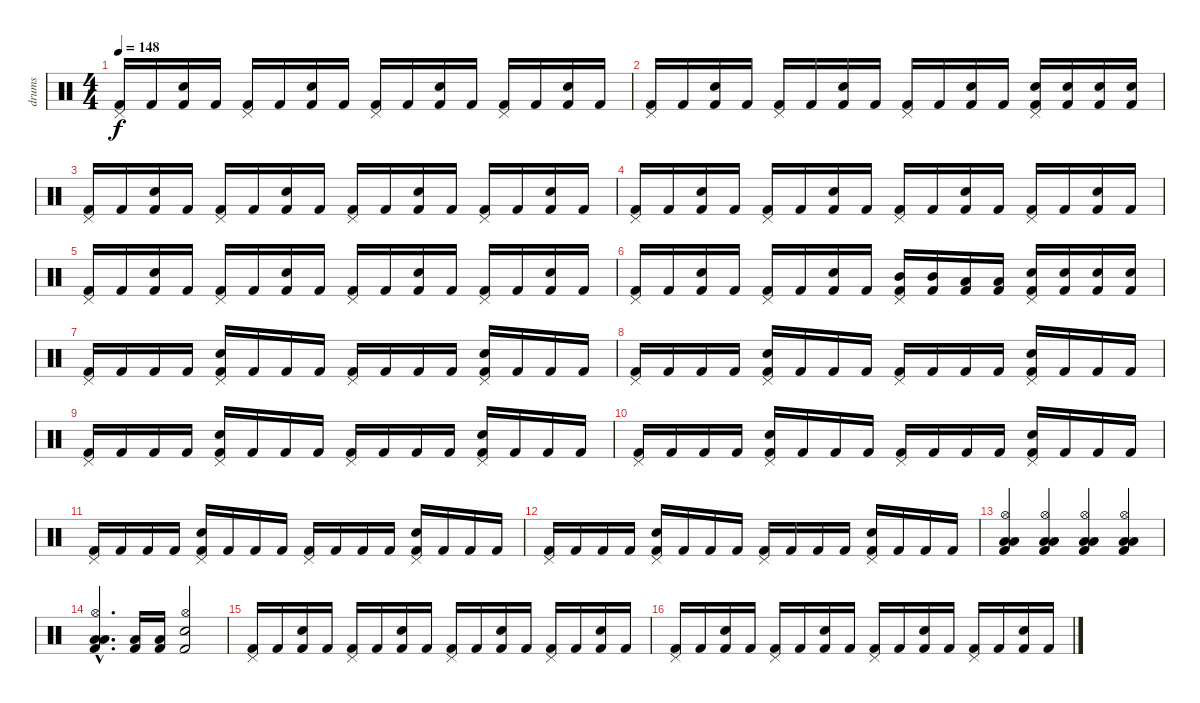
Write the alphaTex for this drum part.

\track ("drums" "drums") {instrument percussion}
\staff {score}
\articulation defaults
\ts (4 4)
\tempo 148
\clef neutral
\ks c
("Pedal Hi-Hat (hit)" "Kick (hit) 2").16{dy f} "Kick (hit) 2".16 ("Electric Snare (hit)" "Kick (hit) 2").16 "Kick (hit) 2".16 ("Pedal Hi-Hat (hit)" "Kick (hit) 2").16 "Kick (hit) 2".16 ("Electric Snare (hit)" "Kick (hit) 2").16 "Kick (hit) 2".16 ("Pedal Hi-Hat (hit)" "Kick (hit) 2").16 "Kick (hit) 2".16 ("Electric Snare (hit)" "Kick (hit) 2").16 "Kick (hit) 2".16 ("Pedal Hi-Hat (hit)" "Kick (hit) 2").16 "Kick (hit) 2".16 ("Electric Snare (hit)" "Kick (hit) 2").16 "Kick (hit) 2".16 |
("Pedal Hi-Hat (hit)" "Kick (hit) 2").16 "Kick (hit) 2".16 ("Electric Snare (hit)" "Kick (hit) 2").16 "Kick (hit) 2".16 ("Pedal Hi-Hat (hit)" "Kick (hit) 2").16 "Kick (hit) 2".16 ("Electric Snare (hit)" "Kick (hit) 2").16 "Kick (hit) 2".16 ("Pedal Hi-Hat (hit)" "Kick (hit) 2").16 "Kick (hit) 2".16 ("Electric Snare (hit)" "Kick (hit) 2").16 "Kick (hit) 2".16 ("Pedal Hi-Hat (hit)" "Electric Snare (hit)" "Kick (hit) 2").16 ("Electric Snare (hit)" "Kick (hit) 2").16 ("Electric Snare (hit)" "Kick (hit) 2").16 ("Electric Snare (hit)" "Kick (hit) 2").16 |
("Pedal Hi-Hat (hit)" "Kick (hit) 2").16 "Kick (hit) 2".16 ("Electric Snare (hit)" "Kick (hit) 2").16 "Kick (hit) 2".16 ("Pedal Hi-Hat (hit)" "Kick (hit) 2").16 "Kick (hit) 2".16 ("Electric Snare (hit)" "Kick (hit) 2").16 "Kick (hit) 2".16 ("Pedal Hi-Hat (hit)" "Kick (hit) 2").16 "Kick (hit) 2".16 ("Electric Snare (hit)" "Kick (hit) 2").16 "Kick (hit) 2".16 ("Pedal Hi-Hat (hit)" "Kick (hit) 2").16 "Kick (hit) 2".16 ("Electric Snare (hit)" "Kick (hit) 2").16 "Kick (hit) 2".16 |
("Pedal Hi-Hat (hit)" "Kick (hit) 2").16 "Kick (hit) 2".16 ("Electric Snare (hit)" "Kick (hit) 2").16 "Kick (hit) 2".16 ("Pedal Hi-Hat (hit)" "Kick (hit) 2").16 "Kick (hit) 2".16 ("Electric Snare (hit)" "Kick (hit) 2").16 "Kick (hit) 2".16 ("Pedal Hi-Hat (hit)" "Kick (hit) 2").16 "Kick (hit) 2".16 ("Electric Snare (hit)" "Kick (hit) 2").16 "Kick (hit) 2".16 ("Pedal Hi-Hat (hit)" "Kick (hit) 2").16 "Kick (hit) 2".16 ("Electric Snare (hit)" "Kick (hit) 2").16 "Kick (hit) 2".16 |
("Pedal Hi-Hat (hit)" "Kick (hit) 2").16 "Kick (hit) 2".16 ("Electric Snare (hit)" "Kick (hit) 2").16 "Kick (hit) 2".16 ("Pedal Hi-Hat (hit)" "Kick (hit) 2").16 "Kick (hit) 2".16 ("Electric Snare (hit)" "Kick (hit) 2").16 "Kick (hit) 2".16 ("Pedal Hi-Hat (hit)" "Kick (hit) 2").16 "Kick (hit) 2".16 ("Electric Snare (hit)" "Kick (hit) 2").16 "Kick (hit) 2".16 ("Pedal Hi-Hat (hit)" "Kick (hit) 2").16 "Kick (hit) 2".16 ("Electric Snare (hit)" "Kick (hit) 2").16 "Kick (hit) 2".16 |
("Pedal Hi-Hat (hit)" "Kick (hit) 2").16 "Kick (hit) 2".16 ("Electric Snare (hit)" "Kick (hit) 2").16 "Kick (hit) 2".16 ("Pedal Hi-Hat (hit)" "Kick (hit) 2").16 "Kick (hit) 2".16 ("Electric Snare (hit)" "Kick (hit) 2").16 "Kick (hit) 2".16 ("Pedal Hi-Hat (hit)" "Mid Tom (hit)" "Kick (hit) 2").16 ("Mid Tom (hit)" "Kick (hit) 2").16 ("Low Tom (hit)" "Kick (hit) 2").16 ("Low Tom (hit)" "Kick (hit) 2").16 ("Pedal Hi-Hat (hit)" "Electric Snare (hit)" "Kick (hit) 2").16 ("Electric Snare (hit)" "Kick (hit) 2").16 ("Electric Snare (hit)" "Kick (hit) 2").16 ("Electric Snare (hit)" "Kick (hit) 2").16 |
("Pedal Hi-Hat (hit)" "Kick (hit) 2").16 "Kick (hit) 2".16 "Kick (hit) 2".16 "Kick (hit) 2".16 ("Pedal Hi-Hat (hit)" "Electric Snare (hit)" "Kick (hit) 2").16 "Kick (hit) 2".16 "Kick (hit) 2".16 "Kick (hit) 2".16 ("Pedal Hi-Hat (hit)" "Kick (hit) 2").16 "Kick (hit) 2".16 "Kick (hit) 2".16 "Kick (hit) 2".16 ("Pedal Hi-Hat (hit)" "Electric Snare (hit)" "Kick (hit) 2").16 "Kick (hit) 2".16 "Kick (hit) 2".16 "Kick (hit) 2".16 |
("Pedal Hi-Hat (hit)" "Kick (hit) 2").16 "Kick (hit) 2".16 "Kick (hit) 2".16 "Kick (hit) 2".16 ("Pedal Hi-Hat (hit)" "Electric Snare (hit)" "Kick (hit) 2").16 "Kick (hit) 2".16 "Kick (hit) 2".16 "Kick (hit) 2".16 ("Pedal Hi-Hat (hit)" "Kick (hit) 2").16 "Kick (hit) 2".16 "Kick (hit) 2".16 "Kick (hit) 2".16 ("Pedal Hi-Hat (hit)" "Electric Snare (hit)" "Kick (hit) 2").16 "Kick (hit) 2".16 "Kick (hit) 2".16 "Kick (hit) 2".16 |
("Pedal Hi-Hat (hit)" "Kick (hit) 2").16 "Kick (hit) 2".16 "Kick (hit) 2".16 "Kick (hit) 2".16 ("Pedal Hi-Hat (hit)" "Electric Snare (hit)" "Kick (hit) 2").16 "Kick (hit) 2".16 "Kick (hit) 2".16 "Kick (hit) 2".16 ("Pedal Hi-Hat (hit)" "Kick (hit) 2").16 "Kick (hit) 2".16 "Kick (hit) 2".16 "Kick (hit) 2".16 ("Pedal Hi-Hat (hit)" "Electric Snare (hit)" "Kick (hit) 2").16 "Kick (hit) 2".16 "Kick (hit) 2".16 "Kick (hit) 2".16 |
("Pedal Hi-Hat (hit)" "Kick (hit) 2").16 "Kick (hit) 2".16 "Kick (hit) 2".16 "Kick (hit) 2".16 ("Pedal Hi-Hat (hit)" "Electric Snare (hit)" "Kick (hit) 2").16 "Kick (hit) 2".16 "Kick (hit) 2".16 "Kick (hit) 2".16 ("Pedal Hi-Hat (hit)" "Kick (hit) 2").16 "Kick (hit) 2".16 "Kick (hit) 2".16 "Kick (hit) 2".16 ("Pedal Hi-Hat (hit)" "Electric Snare (hit)" "Kick (hit) 2").16 "Kick (hit) 2".16 "Kick (hit) 2".16 "Kick (hit) 2".16 |
("Pedal Hi-Hat (hit)" "Kick (hit) 2").16 "Kick (hit) 2".16 "Kick (hit) 2".16 "Kick (hit) 2".16 ("Pedal Hi-Hat (hit)" "Electric Snare (hit)" "Kick (hit) 2").16 "Kick (hit) 2".16 "Kick (hit) 2".16 "Kick (hit) 2".16 ("Pedal Hi-Hat (hit)" "Kick (hit) 2").16 "Kick (hit) 2".16 "Kick (hit) 2".16 "Kick (hit) 2".16 ("Pedal Hi-Hat (hit)" "Electric Snare (hit)" "Kick (hit) 2").16 "Kick (hit) 2".16 "Kick (hit) 2".16 "Kick (hit) 2".16 |
("Pedal Hi-Hat (hit)" "Kick (hit) 2").16 "Kick (hit) 2".16 "Kick (hit) 2".16 "Kick (hit) 2".16 ("Pedal Hi-Hat (hit)" "Electric Snare (hit)" "Kick (hit) 2").16 "Kick (hit) 2".16 "Kick (hit) 2".16 "Kick (hit) 2".16 ("Pedal Hi-Hat (hit)" "Kick (hit) 2").16 "Kick (hit) 2".16 "Kick (hit) 2".16 "Kick (hit) 2".16 ("Pedal Hi-Hat (hit)" "Electric Snare (hit)" "Kick (hit) 2").16 "Kick (hit) 2".16 "Kick (hit) 2".16 "Kick (hit) 2".16 |
("Hi-Hat (open)" "Low Floor Tom (hit)" "Low Floor Tom (hit)" "Kick (hit) 2").4 ("Hi-Hat (open)" "Low Floor Tom (hit)" "Low Floor Tom (hit)" "Kick (hit) 2").4 ("Hi-Hat (open)" "Low Floor Tom (hit)" "Low Floor Tom (hit)" "Kick (hit) 2").4 ("Hi-Hat (open)" "Low Floor Tom (hit)" "Low Floor Tom (hit)" "Kick (hit) 2").4 |
("Hi-Hat (open)"{hac} "Low Floor Tom (hit)"{hac} "Low Floor Tom (hit)"{hac} "Kick (hit) 2"{hac}).4{d} ("Low Floor Tom (hit)" "Kick (hit) 2").16 ("Low Floor Tom (hit)" "Kick (hit) 2").16 ("Hi-Hat (open)" "Snare (hit) 2" "Kick (hit) 2").2 |
("Pedal Hi-Hat (hit)" "Kick (hit) 2").16 "Kick (hit) 2".16 ("Electric Snare (hit)" "Kick (hit) 2").16 "Kick (hit) 2".16 ("Pedal Hi-Hat (hit)" "Kick (hit) 2").16 "Kick (hit) 2".16 ("Electric Snare (hit)" "Kick (hit) 2").16 "Kick (hit) 2".16 ("Pedal Hi-Hat (hit)" "Kick (hit) 2").16 "Kick (hit) 2".16 ("Electric Snare (hit)" "Kick (hit) 2").16 "Kick (hit) 2".16 ("Pedal Hi-Hat (hit)" "Kick (hit) 2").16 "Kick (hit) 2".16 ("Electric Snare (hit)" "Kick (hit) 2").16 "Kick (hit) 2".16 |
("Pedal Hi-Hat (hit)" "Kick (hit) 2").16 "Kick (hit) 2".16 ("Electric Snare (hit)" "Kick (hit) 2").16 "Kick (hit) 2".16 ("Pedal Hi-Hat (hit)" "Kick (hit) 2").16 "Kick (hit) 2".16 ("Electric Snare (hit)" "Kick (hit) 2").16 "Kick (hit) 2".16 ("Pedal Hi-Hat (hit)" "Kick (hit) 2").16 "Kick (hit) 2".16 ("Electric Snare (hit)" "Kick (hit) 2").16 "Kick (hit) 2".16 ("Pedal Hi-Hat (hit)" "Kick (hit) 2").16 "Kick (hit) 2".16 ("Electric Snare (hit)" "Kick (hit) 2").16 "Kick (hit) 2".16
